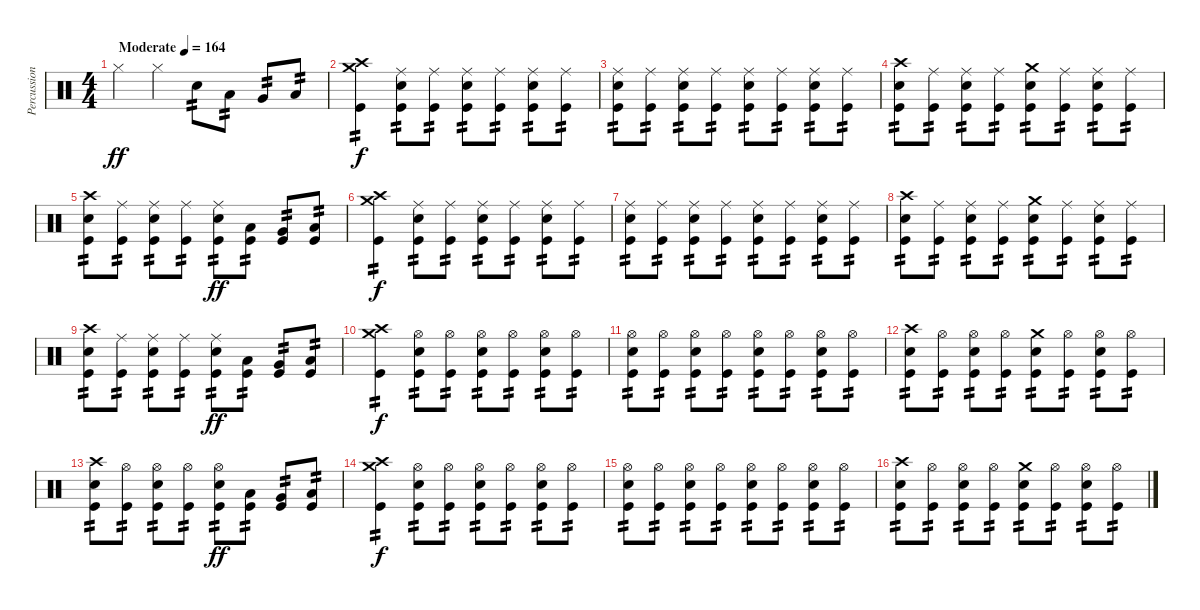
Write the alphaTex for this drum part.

\track ("Percussion" "Percussion") {instrument percussion}
\staff {score}
\articulation defaults
\ts (4 4)
\tempo (164 "Moderate")
\clef neutral
\ks c "Hi-Hat (closed)".4{dy ff} "Hi-Hat (closed)".4 "Electric Snare (hit)".8{tp 2} "Low Tom (hit)".8{tp 2} "Very Low Tom (hit)".8{tp 2} "Low Floor Tom (hit)".8{tp 2}
|
("Crash medium (hit)" "Crash high (hit)" "Kick (hit)").4{tp 2 dy f} ("Ride (middle)" "Electric Snare (hit)" "Kick (hit)").8{tp 2} ("Ride (middle)" "Kick (hit)").8{tp 2} ("Ride (middle)" "Electric Snare (hit)" "Kick (hit)").8{tp 2} ("Ride (middle)" "Kick (hit)").8{tp 2} ("Ride (middle)" "Electric Snare (hit)" "Kick (hit)").8{tp 2} ("Ride (middle)" "Kick (hit)").8{tp 2} |
("Ride (middle)" "Electric Snare (hit)" "Kick (hit)").8{tp 2} ("Ride (middle)" "Kick (hit)").8{tp 2} ("Ride (middle)" "Electric Snare (hit)" "Kick (hit)").8{tp 2} ("Ride (middle)" "Kick (hit)").8{tp 2} ("Ride (middle)" "Electric Snare (hit)" "Kick (hit)").8{tp 2} ("Ride (middle)" "Kick (hit)").8{tp 2} ("Ride (middle)" "Electric Snare (hit)" "Kick (hit)").8{tp 2} ("Ride (middle)" "Kick (hit)").8{tp 2} |
("Crash high (hit)" "Electric Snare (hit)" "Kick (hit)").8{tp 2} ("Ride (middle)" "Kick (hit)").8{tp 2} ("Ride (middle)" "Electric Snare (hit)" "Kick (hit)").8{tp 2} ("Ride (middle)" "Kick (hit)").8{tp 2} ("Crash medium (hit)" "Electric Snare (hit)" "Kick (hit)").8{tp 2} ("Ride (middle)" "Kick (hit)").8{tp 2} ("Ride (middle)" "Electric Snare (hit)" "Kick (hit)").8{tp 2} ("Ride (middle)" "Kick (hit)").8{tp 2} |
("Crash high (hit)" "Electric Snare (hit)" "Kick (hit)").8{tp 2} ("Ride (middle)" "Kick (hit)").8{tp 2} ("Ride (middle)" "Electric Snare (hit)" "Kick (hit)").8{tp 2} ("Ride (middle)" "Kick (hit)").8{tp 2} ("Ride (middle)" "Electric Snare (hit)" "Kick (hit)").8{tp 2 dy ff} ("Low Tom (hit)" "Kick (hit)").8{tp 2} ("Very Low Tom (hit)" "Kick (hit)").8{tp 2} ("Low Floor Tom (hit)" "Kick (hit)").8{tp 2} |
("Crash medium (hit)" "Crash high (hit)" "Kick (hit)").4{tp 2 dy f} ("Ride (middle)" "Electric Snare (hit)" "Kick (hit)").8{tp 2} ("Ride (middle)" "Kick (hit)").8{tp 2} ("Ride (middle)" "Electric Snare (hit)" "Kick (hit)").8{tp 2} ("Ride (middle)" "Kick (hit)").8{tp 2} ("Ride (middle)" "Electric Snare (hit)" "Kick (hit)").8{tp 2} ("Ride (middle)" "Kick (hit)").8{tp 2} |
("Ride (middle)" "Electric Snare (hit)" "Kick (hit)").8{tp 2} ("Ride (middle)" "Kick (hit)").8{tp 2} ("Ride (middle)" "Electric Snare (hit)" "Kick (hit)").8{tp 2} ("Ride (middle)" "Kick (hit)").8{tp 2} ("Ride (middle)" "Electric Snare (hit)" "Kick (hit)").8{tp 2} ("Ride (middle)" "Kick (hit)").8{tp 2} ("Ride (middle)" "Electric Snare (hit)" "Kick (hit)").8{tp 2} ("Ride (middle)" "Kick (hit)").8{tp 2} |
("Crash high (hit)" "Electric Snare (hit)" "Kick (hit)").8{tp 2} ("Ride (middle)" "Kick (hit)").8{tp 2} ("Ride (middle)" "Electric Snare (hit)" "Kick (hit)").8{tp 2} ("Ride (middle)" "Kick (hit)").8{tp 2} ("Crash medium (hit)" "Electric Snare (hit)" "Kick (hit)").8{tp 2} ("Ride (middle)" "Kick (hit)").8{tp 2} ("Ride (middle)" "Electric Snare (hit)" "Kick (hit)").8{tp 2} ("Ride (middle)" "Kick (hit)").8{tp 2} |
("Crash high (hit)" "Electric Snare (hit)" "Kick (hit)").8{tp 2} ("Ride (middle)" "Kick (hit)").8{tp 2} ("Ride (middle)" "Electric Snare (hit)" "Kick (hit)").8{tp 2} ("Ride (middle)" "Kick (hit)").8{tp 2} ("Ride (middle)" "Electric Snare (hit)" "Kick (hit)").8{tp 2 dy ff} ("Low Tom (hit)" "Kick (hit)").8{tp 2} ("Very Low Tom (hit)" "Kick (hit)").8{tp 2} ("Low Floor Tom (hit)" "Kick (hit)").8{tp 2} |
("Crash medium (hit)" "Crash high (hit)" "Kick (hit)").4{tp 2 dy f} ("Hi-Hat (open)" "Electric Snare (hit)" "Kick (hit)").8{tp 2} ("Hi-Hat (open)" "Kick (hit)").8{tp 2} ("Hi-Hat (open)" "Electric Snare (hit)" "Kick (hit)").8{tp 2} ("Hi-Hat (open)" "Kick (hit)").8{tp 2} ("Hi-Hat (open)" "Electric Snare (hit)" "Kick (hit)").8{tp 2} ("Hi-Hat (open)" "Kick (hit)").8{tp 2} |
("Hi-Hat (open)" "Electric Snare (hit)" "Kick (hit)").8{tp 2} ("Hi-Hat (open)" "Kick (hit)").8{tp 2} ("Hi-Hat (open)" "Electric Snare (hit)" "Kick (hit)").8{tp 2} ("Hi-Hat (open)" "Kick (hit)").8{tp 2} ("Hi-Hat (open)" "Electric Snare (hit)" "Kick (hit)").8{tp 2} ("Hi-Hat (open)" "Kick (hit)").8{tp 2} ("Hi-Hat (open)" "Electric Snare (hit)" "Kick (hit)").8{tp 2} ("Hi-Hat (open)" "Kick (hit)").8{tp 2} |
("Crash high (hit)" "Electric Snare (hit)" "Kick (hit)").8{tp 2} ("Hi-Hat (open)" "Kick (hit)").8{tp 2} ("Hi-Hat (open)" "Electric Snare (hit)" "Kick (hit)").8{tp 2} ("Hi-Hat (open)" "Kick (hit)").8{tp 2} ("Crash medium (hit)" "Electric Snare (hit)" "Kick (hit)").8{tp 2} ("Hi-Hat (open)" "Kick (hit)").8{tp 2} ("Hi-Hat (open)" "Electric Snare (hit)" "Kick (hit)").8{tp 2} ("Hi-Hat (open)" "Kick (hit)").8{tp 2} |
("Crash high (hit)" "Electric Snare (hit)" "Kick (hit)").8{tp 2} ("Hi-Hat (open)" "Kick (hit)").8{tp 2} ("Hi-Hat (open)" "Electric Snare (hit)" "Kick (hit)").8{tp 2} ("Hi-Hat (open)" "Kick (hit)").8{tp 2} ("Hi-Hat (open)" "Electric Snare (hit)" "Kick (hit)").8{tp 2 dy ff} ("Low Tom (hit)" "Kick (hit)").8{tp 2} ("Very Low Tom (hit)" "Kick (hit)").8{tp 2} ("Low Floor Tom (hit)" "Kick (hit)").8{tp 2} |
("Crash medium (hit)" "Crash high (hit)" "Kick (hit)").4{tp 2 dy f} ("Hi-Hat (open)" "Electric Snare (hit)" "Kick (hit)").8{tp 2} ("Hi-Hat (open)" "Kick (hit)").8{tp 2} ("Hi-Hat (open)" "Electric Snare (hit)" "Kick (hit)").8{tp 2} ("Hi-Hat (open)" "Kick (hit)").8{tp 2} ("Hi-Hat (open)" "Electric Snare (hit)" "Kick (hit)").8{tp 2} ("Hi-Hat (open)" "Kick (hit)").8{tp 2} |
("Hi-Hat (open)" "Electric Snare (hit)" "Kick (hit)").8{tp 2} ("Hi-Hat (open)" "Kick (hit)").8{tp 2} ("Hi-Hat (open)" "Electric Snare (hit)" "Kick (hit)").8{tp 2} ("Hi-Hat (open)" "Kick (hit)").8{tp 2} ("Hi-Hat (open)" "Electric Snare (hit)" "Kick (hit)").8{tp 2} ("Hi-Hat (open)" "Kick (hit)").8{tp 2} ("Hi-Hat (open)" "Electric Snare (hit)" "Kick (hit)").8{tp 2} ("Hi-Hat (open)" "Kick (hit)").8{tp 2} |
("Crash high (hit)" "Electric Snare (hit)" "Kick (hit)").8{tp 2} ("Hi-Hat (open)" "Kick (hit)").8{tp 2} ("Hi-Hat (open)" "Electric Snare (hit)" "Kick (hit)").8{tp 2} ("Hi-Hat (open)" "Kick (hit)").8{tp 2} ("Crash medium (hit)" "Electric Snare (hit)" "Kick (hit)").8{tp 2} ("Hi-Hat (open)" "Kick (hit)").8{tp 2} ("Hi-Hat (open)" "Electric Snare (hit)" "Kick (hit)").8{tp 2} ("Hi-Hat (open)" "Kick (hit)").8{tp 2}
